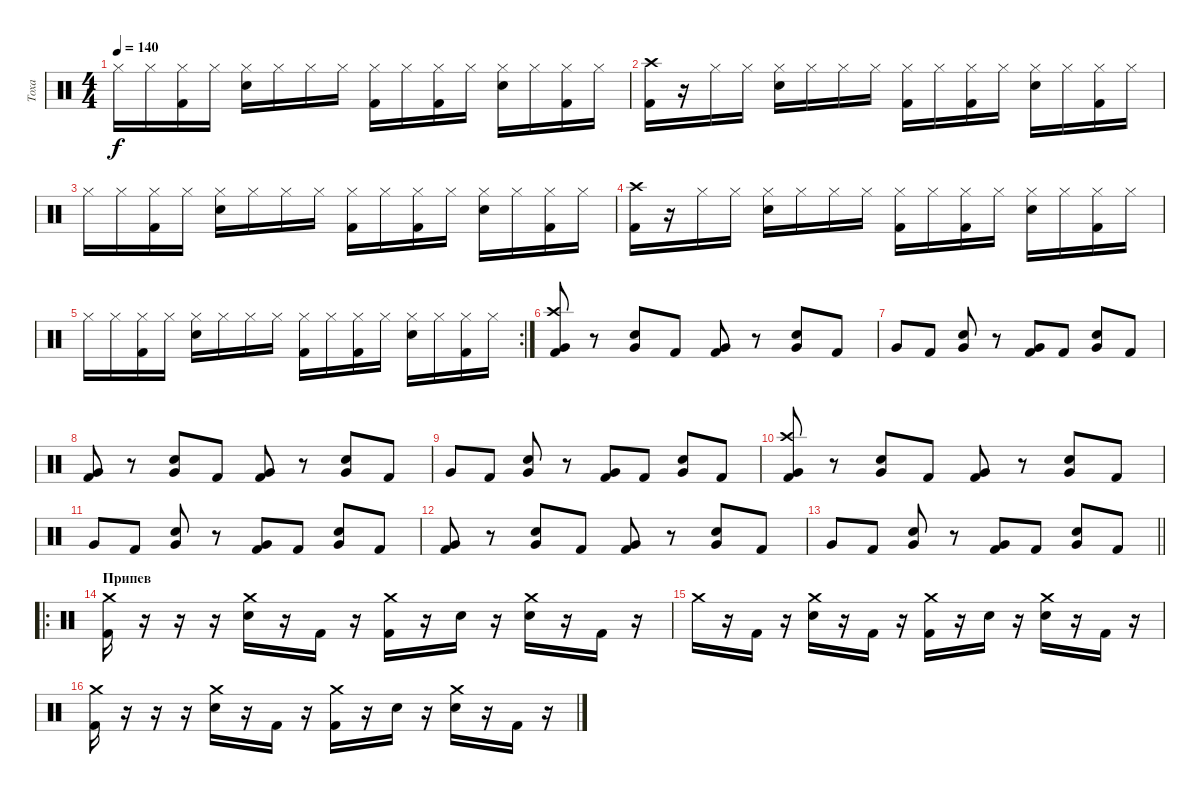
\track ("Тоха" "Тоха") {instrument percussion}
\staff {score}
\articulation defaults
\ts (4 4)
\tempo 140
\clef neutral
\ks c "Hi-Hat (closed)".16{dy f} "Hi-Hat (closed)".16
("Kick (hit) 2" "Hi-Hat (closed)").16 "Hi-Hat (closed)".16 ("Snare (hit) 2" "Hi-Hat (closed)").16 "Hi-Hat (closed)".16 "Hi-Hat (closed)".16 "Hi-Hat (closed)".16 ("Kick (hit) 2" "Hi-Hat (closed)").16 "Hi-Hat (closed)".16 ("Kick (hit) 2" "Hi-Hat (closed)").16 "Hi-Hat (closed)".16 ("Snare (hit) 2" "Hi-Hat (closed)").16 "Hi-Hat (closed)".16 ("Kick (hit) 2" "Hi-Hat (closed)").16 "Hi-Hat (closed)".16 |
("Kick (hit) 2" "Crash high (hit)").16 r.16 "Hi-Hat (closed)".16 "Hi-Hat (closed)".16 ("Snare (hit) 2" "Hi-Hat (closed)").16 "Hi-Hat (closed)".16 "Hi-Hat (closed)".16 "Hi-Hat (closed)".16 ("Kick (hit) 2" "Hi-Hat (closed)").16 "Hi-Hat (closed)".16 ("Kick (hit) 2" "Hi-Hat (closed)").16 "Hi-Hat (closed)".16 ("Snare (hit) 2" "Hi-Hat (closed)").16 "Hi-Hat (closed)".16 ("Kick (hit) 2" "Hi-Hat (closed)").16 "Hi-Hat (closed)".16 |
"Hi-Hat (closed)".16 "Hi-Hat (closed)".16 ("Kick (hit) 2" "Hi-Hat (closed)").16 "Hi-Hat (closed)".16 ("Snare (hit) 2" "Hi-Hat (closed)").16 "Hi-Hat (closed)".16 "Hi-Hat (closed)".16 "Hi-Hat (closed)".16 ("Kick (hit) 2" "Hi-Hat (closed)").16 "Hi-Hat (closed)".16 ("Kick (hit) 2" "Hi-Hat (closed)").16 "Hi-Hat (closed)".16 ("Snare (hit) 2" "Hi-Hat (closed)").16 "Hi-Hat (closed)".16 ("Kick (hit) 2" "Hi-Hat (closed)").16 "Hi-Hat (closed)".16 |
("Kick (hit) 2" "Crash high (hit)").16 r.16 "Hi-Hat (closed)".16 "Hi-Hat (closed)".16 ("Snare (hit) 2" "Hi-Hat (closed)").16 "Hi-Hat (closed)".16 "Hi-Hat (closed)".16 "Hi-Hat (closed)".16 ("Kick (hit) 2" "Hi-Hat (closed)").16 "Hi-Hat (closed)".16 ("Kick (hit) 2" "Hi-Hat (closed)").16 "Hi-Hat (closed)".16 ("Snare (hit) 2" "Hi-Hat (closed)").16 "Hi-Hat (closed)".16 ("Kick (hit) 2" "Hi-Hat (closed)").16 "Hi-Hat (closed)".16 |
\rc 2 "Hi-Hat (closed)".16 "Hi-Hat (closed)".16
("Kick (hit) 2" "Hi-Hat (closed)").16 "Hi-Hat (closed)".16 ("Snare (hit) 2" "Hi-Hat (closed)").16 "Hi-Hat (closed)".16 "Hi-Hat (closed)".16 "Hi-Hat (closed)".16 ("Kick (hit) 2" "Hi-Hat (closed)").16 "Hi-Hat (closed)".16 ("Kick (hit) 2" "Hi-Hat (closed)").16 "Hi-Hat (closed)".16 ("Snare (hit) 2" "Hi-Hat (closed)").16 "Hi-Hat (closed)".16 ("Kick (hit) 2" "Hi-Hat (closed)").16 "Hi-Hat (closed)".16 |
("Kick (hit) 2" "Very Low Tom (hit)" "Crash high (hit)").8 r.8 ("Snare (hit) 2" "Very Low Tom (hit)").8 "Kick (hit) 2".8 ("Kick (hit) 2" "Very Low Tom (hit)").8 r.8 ("Snare (hit) 2" "Very Low Tom (hit)").8 "Kick (hit) 2".8 |
"Very Low Tom (hit)".8 "Kick (hit) 2".8 ("Snare (hit) 2" "Very Low Tom (hit)").8 r.8 ("Kick (hit) 2" "Very Low Tom (hit)").8 "Kick (hit) 2".8 ("Snare (hit) 2" "Very Low Tom (hit)").8 "Kick (hit) 2".8 |
("Kick (hit) 2" "Very Low Tom (hit)").8 r.8 ("Snare (hit) 2" "Very Low Tom (hit)").8 "Kick (hit) 2".8 ("Kick (hit) 2" "Very Low Tom (hit)").8 r.8 ("Snare (hit) 2" "Very Low Tom (hit)").8 "Kick (hit) 2".8 |
"Very Low Tom (hit)".8 "Kick (hit) 2".8 ("Snare (hit) 2" "Very Low Tom (hit)").8 r.8 ("Kick (hit) 2" "Very Low Tom (hit)").8 "Kick (hit) 2".8 ("Snare (hit) 2" "Very Low Tom (hit)").8 "Kick (hit) 2".8 |
("Kick (hit) 2" "Very Low Tom (hit)" "Crash high (hit)").8 r.8 ("Snare (hit) 2" "Very Low Tom (hit)").8 "Kick (hit) 2".8 ("Kick (hit) 2" "Very Low Tom (hit)").8 r.8 ("Snare (hit) 2" "Very Low Tom (hit)").8 "Kick (hit) 2".8 |
"Very Low Tom (hit)".8 "Kick (hit) 2".8 ("Snare (hit) 2" "Very Low Tom (hit)").8 r.8 ("Kick (hit) 2" "Very Low Tom (hit)").8 "Kick (hit) 2".8 ("Snare (hit) 2" "Very Low Tom (hit)").8 "Kick (hit) 2".8 |
("Kick (hit) 2" "Very Low Tom (hit)").8 r.8 ("Snare (hit) 2" "Very Low Tom (hit)").8 "Kick (hit) 2".8 ("Kick (hit) 2" "Very Low Tom (hit)").8 r.8 ("Snare (hit) 2" "Very Low Tom (hit)").8 "Kick (hit) 2".8 |
\barLineRight lightlight "Very Low Tom (hit)".8 "Kick (hit) 2".8
("Snare (hit) 2" "Very Low Tom (hit)").8 r.8 ("Kick (hit) 2" "Very Low Tom (hit)").8 "Kick (hit) 2".8 ("Snare (hit) 2" "Very Low Tom (hit)").8 "Kick (hit) 2".8 |
\ro
\section ("" "Припев")
("Kick (hit) 2" "Crash medium (hit)").16 r.16 r.16 r.16 ("Snare (hit) 2" "Crash medium (hit)").16 r.16 "Kick (hit) 2".16 r.16 ("Kick (hit) 2" "Crash medium (hit)").16 r.16 "Snare (hit) 2".16 r.16 ("Snare (hit) 2" "Crash medium (hit)").16 r.16 "Kick (hit) 2".16 r.16 |
"Crash medium (hit)".16 r.16 "Kick (hit) 2".16 r.16 ("Snare (hit) 2" "Crash medium (hit)").16 r.16 "Kick (hit) 2".16 r.16 ("Kick (hit) 2" "Crash medium (hit)").16 r.16 "Snare (hit) 2".16 r.16 ("Snare (hit) 2" "Crash medium (hit)").16 r.16 "Kick (hit) 2".16 r.16 |
("Kick (hit) 2" "Crash medium (hit)").16 r.16 r.16 r.16 ("Snare (hit) 2" "Crash medium (hit)").16 r.16 "Kick (hit) 2".16 r.16 ("Kick (hit) 2" "Crash medium (hit)").16 r.16 "Snare (hit) 2".16 r.16 ("Snare (hit) 2" "Crash medium (hit)").16 r.16 "Kick (hit) 2".16 r.16
